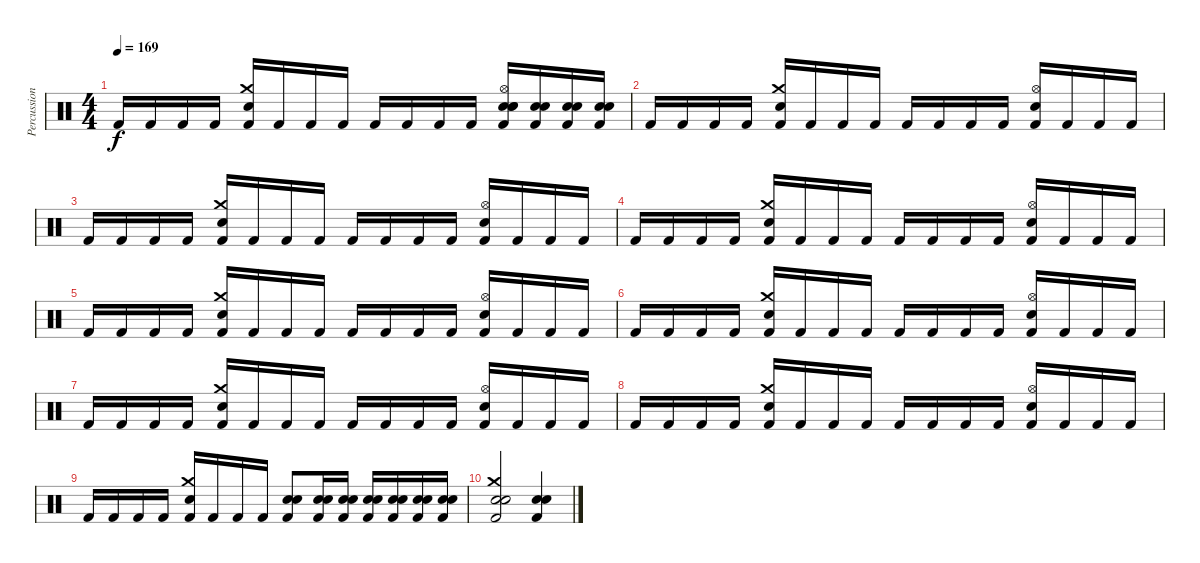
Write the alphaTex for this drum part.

\track ("Percussion" "Percussion") {instrument percussion}
\staff {score}
\articulation defaults
\ts (4 4)
\tempo 169
\clef neutral
\ks c "Kick (hit) 2".16{dy f} "Kick (hit) 2".16 "Kick (hit) 2".16 "Kick (hit) 2".16
("Crash medium (hit)" "Electric Snare (hit)" "Kick (hit) 2").16 "Kick (hit) 2".16 "Kick (hit) 2".16 "Kick (hit) 2".16 "Kick (hit) 2".16 "Kick (hit) 2".16 "Kick (hit) 2".16 "Kick (hit) 2".16 ("Hi-Hat (open)" "Snare (hit) 2" "Snare (hit) 2" "Snare (hit) 2" "Kick (hit) 2").16 ("Snare (hit) 2" "Snare (hit) 2" "Kick (hit) 2").16 ("Snare (hit) 2" "Snare (hit) 2" "Kick (hit) 2").16 ("Snare (hit) 2" "Snare (hit) 2" "Kick (hit) 2").16 |
"Kick (hit) 2".16 "Kick (hit) 2".16 "Kick (hit) 2".16 "Kick (hit) 2".16 ("Crash medium (hit)" "Electric Snare (hit)" "Kick (hit) 2").16 "Kick (hit) 2".16 "Kick (hit) 2".16 "Kick (hit) 2".16 "Kick (hit) 2".16 "Kick (hit) 2".16 "Kick (hit) 2".16 "Kick (hit) 2".16 ("Hi-Hat (open)" "Snare (hit) 2" "Kick (hit) 2").16 "Kick (hit) 2".16 "Kick (hit) 2".16 "Kick (hit) 2".16 |
"Kick (hit) 2".16 "Kick (hit) 2".16 "Kick (hit) 2".16 "Kick (hit) 2".16 ("Crash medium (hit)" "Electric Snare (hit)" "Kick (hit) 2").16 "Kick (hit) 2".16 "Kick (hit) 2".16 "Kick (hit) 2".16 "Kick (hit) 2".16 "Kick (hit) 2".16 "Kick (hit) 2".16 "Kick (hit) 2".16 ("Hi-Hat (open)" "Snare (hit) 2" "Kick (hit) 2").16 "Kick (hit) 2".16 "Kick (hit) 2".16 "Kick (hit) 2".16 |
"Kick (hit) 2".16 "Kick (hit) 2".16 "Kick (hit) 2".16 "Kick (hit) 2".16 ("Crash medium (hit)" "Electric Snare (hit)" "Kick (hit) 2").16 "Kick (hit) 2".16 "Kick (hit) 2".16 "Kick (hit) 2".16 "Kick (hit) 2".16 "Kick (hit) 2".16 "Kick (hit) 2".16 "Kick (hit) 2".16 ("Hi-Hat (open)" "Snare (hit) 2" "Kick (hit) 2").16 "Kick (hit) 2".16 "Kick (hit) 2".16 "Kick (hit) 2".16 |
"Kick (hit) 2".16 "Kick (hit) 2".16 "Kick (hit) 2".16 "Kick (hit) 2".16 ("Crash medium (hit)" "Electric Snare (hit)" "Kick (hit) 2").16 "Kick (hit) 2".16 "Kick (hit) 2".16 "Kick (hit) 2".16 "Kick (hit) 2".16 "Kick (hit) 2".16 "Kick (hit) 2".16 "Kick (hit) 2".16 ("Hi-Hat (open)" "Snare (hit) 2" "Kick (hit) 2").16 "Kick (hit) 2".16 "Kick (hit) 2".16 "Kick (hit) 2".16 |
"Kick (hit) 2".16 "Kick (hit) 2".16 "Kick (hit) 2".16 "Kick (hit) 2".16 ("Crash medium (hit)" "Electric Snare (hit)" "Kick (hit) 2").16 "Kick (hit) 2".16 "Kick (hit) 2".16 "Kick (hit) 2".16 "Kick (hit) 2".16 "Kick (hit) 2".16 "Kick (hit) 2".16 "Kick (hit) 2".16 ("Hi-Hat (open)" "Snare (hit) 2" "Kick (hit) 2").16 "Kick (hit) 2".16 "Kick (hit) 2".16 "Kick (hit) 2".16 |
"Kick (hit) 2".16 "Kick (hit) 2".16 "Kick (hit) 2".16 "Kick (hit) 2".16 ("Crash medium (hit)" "Electric Snare (hit)" "Kick (hit) 2").16 "Kick (hit) 2".16 "Kick (hit) 2".16 "Kick (hit) 2".16 "Kick (hit) 2".16 "Kick (hit) 2".16 "Kick (hit) 2".16 "Kick (hit) 2".16 ("Hi-Hat (open)" "Snare (hit) 2" "Kick (hit) 2").16 "Kick (hit) 2".16 "Kick (hit) 2".16 "Kick (hit) 2".16 |
"Kick (hit) 2".16 "Kick (hit) 2".16 "Kick (hit) 2".16 "Kick (hit) 2".16 ("Crash medium (hit)" "Electric Snare (hit)" "Kick (hit) 2").16 "Kick (hit) 2".16 "Kick (hit) 2".16 "Kick (hit) 2".16 "Kick (hit) 2".16 "Kick (hit) 2".16 "Kick (hit) 2".16 "Kick (hit) 2".16 ("Hi-Hat (open)" "Snare (hit) 2" "Kick (hit) 2").16 "Kick (hit) 2".16 "Kick (hit) 2".16 "Kick (hit) 2".16 |
"Kick (hit) 2".16 "Kick (hit) 2".16 "Kick (hit) 2".16 "Kick (hit) 2".16 ("Crash medium (hit)" "Electric Snare (hit)" "Kick (hit) 2").16 "Kick (hit) 2".16 "Kick (hit) 2".16 "Kick (hit) 2".16 ("Snare (hit) 2" "Snare (hit) 2" "Kick (hit) 2").8 ("Snare (hit) 2" "Snare (hit) 2" "Kick (hit) 2").16 ("Snare (hit) 2" "Snare (hit) 2" "Kick (hit) 2").16 ("Snare (hit) 2" "Snare (hit) 2" "Kick (hit) 2").16 ("Snare (hit) 2" "Snare (hit) 2" "Kick (hit) 2").16 ("Snare (hit) 2" "Snare (hit) 2" "Kick (hit) 2").16 ("Snare (hit) 2" "Snare (hit) 2" "Kick (hit) 2").16 |
("Crash medium (hit)" "Snare (hit) 2" "Snare (hit) 2" "Kick (hit) 2").2 ("Snare (hit) 2" "Snare (hit) 2" "Kick (hit) 2").4
